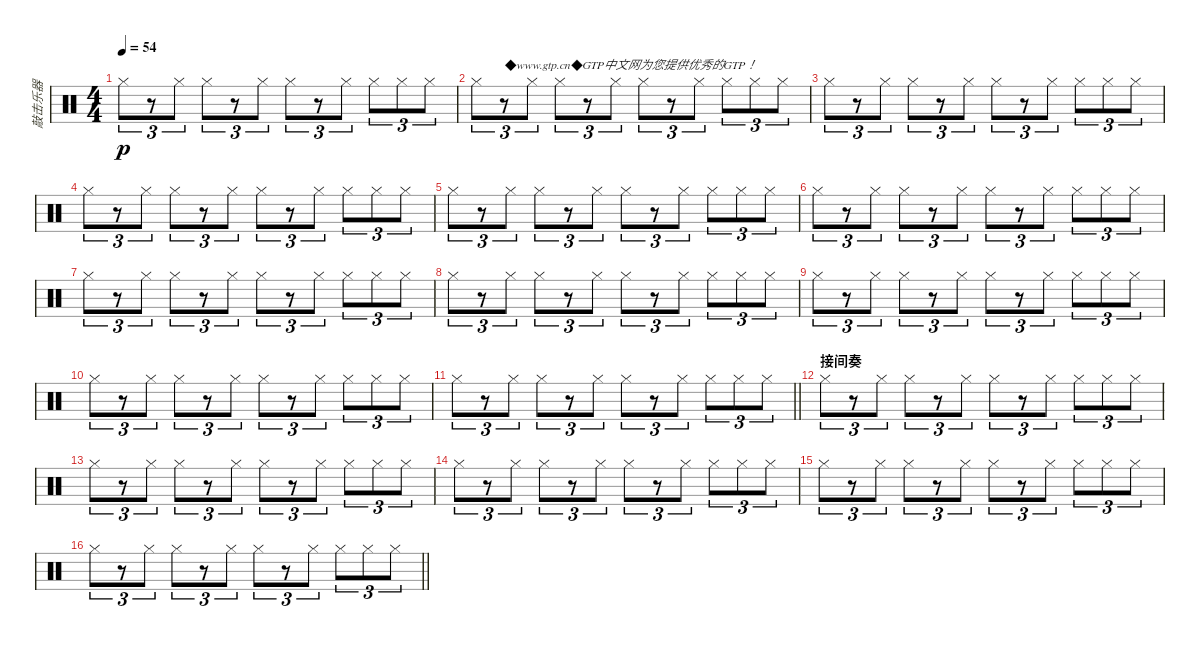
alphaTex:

\track ("敲击乐器" "敲击乐器") {instrument percussion}
\staff {score}
\articulation defaults
\ts (4 4)
\tempo 54
\clef neutral
\ks c "Hi-Hat (closed)".8{tu (3 2) dy p}
r.8{tu (3 2)} "Hi-Hat (closed)".8{tu (3 2)} "Hi-Hat (closed)".8{tu (3 2)} r.8{tu (3 2)} "Hi-Hat (closed)".8{tu (3 2)} "Hi-Hat (closed)".8{tu (3 2)} r.8{tu (3 2)} "Hi-Hat (closed)".8{tu (3 2)} "Hi-Hat (closed)".8{tu (3 2)} "Hi-Hat (closed)".8{tu (3 2)} "Hi-Hat (closed)".8{tu (3 2)} |
"Hi-Hat (closed)".8{tu (3 2)} r.8{tu (3 2) txt "◆www.gtp.cn◆GTP中文网为您提供优秀的GTP！"} "Hi-Hat (closed)".8{tu (3 2)} "Hi-Hat (closed)".8{tu (3 2)} r.8{tu (3 2)} "Hi-Hat (closed)".8{tu (3 2)} "Hi-Hat (closed)".8{tu (3 2)} r.8{tu (3 2)} "Hi-Hat (closed)".8{tu (3 2)} "Hi-Hat (closed)".8{tu (3 2)} "Hi-Hat (closed)".8{tu (3 2)} "Hi-Hat (closed)".8{tu (3 2)} |
"Hi-Hat (closed)".8{tu (3 2)} r.8{tu (3 2)} "Hi-Hat (closed)".8{tu (3 2)} "Hi-Hat (closed)".8{tu (3 2)} r.8{tu (3 2)} "Hi-Hat (closed)".8{tu (3 2)} "Hi-Hat (closed)".8{tu (3 2)} r.8{tu (3 2)} "Hi-Hat (closed)".8{tu (3 2)} "Hi-Hat (closed)".8{tu (3 2)} "Hi-Hat (closed)".8{tu (3 2)} "Hi-Hat (closed)".8{tu (3 2)} |
"Hi-Hat (closed)".8{tu (3 2)} r.8{tu (3 2)} "Hi-Hat (closed)".8{tu (3 2)} "Hi-Hat (closed)".8{tu (3 2)} r.8{tu (3 2)} "Hi-Hat (closed)".8{tu (3 2)} "Hi-Hat (closed)".8{tu (3 2)} r.8{tu (3 2)} "Hi-Hat (closed)".8{tu (3 2)} "Hi-Hat (closed)".8{tu (3 2)} "Hi-Hat (closed)".8{tu (3 2)} "Hi-Hat (closed)".8{tu (3 2)} |
"Hi-Hat (closed)".8{tu (3 2)} r.8{tu (3 2)} "Hi-Hat (closed)".8{tu (3 2)} "Hi-Hat (closed)".8{tu (3 2)} r.8{tu (3 2)} "Hi-Hat (closed)".8{tu (3 2)} "Hi-Hat (closed)".8{tu (3 2)} r.8{tu (3 2)} "Hi-Hat (closed)".8{tu (3 2)} "Hi-Hat (closed)".8{tu (3 2)} "Hi-Hat (closed)".8{tu (3 2)} "Hi-Hat (closed)".8{tu (3 2)} |
"Hi-Hat (closed)".8{tu (3 2)} r.8{tu (3 2)} "Hi-Hat (closed)".8{tu (3 2)} "Hi-Hat (closed)".8{tu (3 2)} r.8{tu (3 2)} "Hi-Hat (closed)".8{tu (3 2)} "Hi-Hat (closed)".8{tu (3 2)} r.8{tu (3 2)} "Hi-Hat (closed)".8{tu (3 2)} "Hi-Hat (closed)".8{tu (3 2)} "Hi-Hat (closed)".8{tu (3 2)} "Hi-Hat (closed)".8{tu (3 2)} |
"Hi-Hat (closed)".8{tu (3 2)} r.8{tu (3 2)} "Hi-Hat (closed)".8{tu (3 2)} "Hi-Hat (closed)".8{tu (3 2)} r.8{tu (3 2)} "Hi-Hat (closed)".8{tu (3 2)} "Hi-Hat (closed)".8{tu (3 2)} r.8{tu (3 2)} "Hi-Hat (closed)".8{tu (3 2)} "Hi-Hat (closed)".8{tu (3 2)} "Hi-Hat (closed)".8{tu (3 2)} "Hi-Hat (closed)".8{tu (3 2)} |
"Hi-Hat (closed)".8{tu (3 2)} r.8{tu (3 2)} "Hi-Hat (closed)".8{tu (3 2)} "Hi-Hat (closed)".8{tu (3 2)} r.8{tu (3 2)} "Hi-Hat (closed)".8{tu (3 2)} "Hi-Hat (closed)".8{tu (3 2)} r.8{tu (3 2)} "Hi-Hat (closed)".8{tu (3 2)} "Hi-Hat (closed)".8{tu (3 2)} "Hi-Hat (closed)".8{tu (3 2)} "Hi-Hat (closed)".8{tu (3 2)} |
"Hi-Hat (closed)".8{tu (3 2)} r.8{tu (3 2)} "Hi-Hat (closed)".8{tu (3 2)} "Hi-Hat (closed)".8{tu (3 2)} r.8{tu (3 2)} "Hi-Hat (closed)".8{tu (3 2)} "Hi-Hat (closed)".8{tu (3 2)} r.8{tu (3 2)} "Hi-Hat (closed)".8{tu (3 2)} "Hi-Hat (closed)".8{tu (3 2)} "Hi-Hat (closed)".8{tu (3 2)} "Hi-Hat (closed)".8{tu (3 2)} |
"Hi-Hat (closed)".8{tu (3 2)} r.8{tu (3 2)} "Hi-Hat (closed)".8{tu (3 2)} "Hi-Hat (closed)".8{tu (3 2)} r.8{tu (3 2)} "Hi-Hat (closed)".8{tu (3 2)} "Hi-Hat (closed)".8{tu (3 2)} r.8{tu (3 2)} "Hi-Hat (closed)".8{tu (3 2)} "Hi-Hat (closed)".8{tu (3 2)} "Hi-Hat (closed)".8{tu (3 2)} "Hi-Hat (closed)".8{tu (3 2)} |
\barLineRight lightlight "Hi-Hat (closed)".8{tu (3 2)}
r.8{tu (3 2)} "Hi-Hat (closed)".8{tu (3 2)} "Hi-Hat (closed)".8{tu (3 2)} r.8{tu (3 2)} "Hi-Hat (closed)".8{tu (3 2)} "Hi-Hat (closed)".8{tu (3 2)} r.8{tu (3 2)} "Hi-Hat (closed)".8{tu (3 2)} "Hi-Hat (closed)".8{tu (3 2)} "Hi-Hat (closed)".8{tu (3 2)} "Hi-Hat (closed)".8{tu (3 2)} |
\section ("" "接间奏")
"Hi-Hat (closed)".8{tu (3 2)} r.8{tu (3 2)} "Hi-Hat (closed)".8{tu (3 2)} "Hi-Hat (closed)".8{tu (3 2)} r.8{tu (3 2)} "Hi-Hat (closed)".8{tu (3 2)} "Hi-Hat (closed)".8{tu (3 2)} r.8{tu (3 2)} "Hi-Hat (closed)".8{tu (3 2)} "Hi-Hat (closed)".8{tu (3 2)} "Hi-Hat (closed)".8{tu (3 2)} "Hi-Hat (closed)".8{tu (3 2)} |
"Hi-Hat (closed)".8{tu (3 2)} r.8{tu (3 2)} "Hi-Hat (closed)".8{tu (3 2)} "Hi-Hat (closed)".8{tu (3 2)} r.8{tu (3 2)} "Hi-Hat (closed)".8{tu (3 2)} "Hi-Hat (closed)".8{tu (3 2)} r.8{tu (3 2)} "Hi-Hat (closed)".8{tu (3 2)} "Hi-Hat (closed)".8{tu (3 2)} "Hi-Hat (closed)".8{tu (3 2)} "Hi-Hat (closed)".8{tu (3 2)} |
"Hi-Hat (closed)".8{tu (3 2)} r.8{tu (3 2)} "Hi-Hat (closed)".8{tu (3 2)} "Hi-Hat (closed)".8{tu (3 2)} r.8{tu (3 2)} "Hi-Hat (closed)".8{tu (3 2)} "Hi-Hat (closed)".8{tu (3 2)} r.8{tu (3 2)} "Hi-Hat (closed)".8{tu (3 2)} "Hi-Hat (closed)".8{tu (3 2)} "Hi-Hat (closed)".8{tu (3 2)} "Hi-Hat (closed)".8{tu (3 2)} |
"Hi-Hat (closed)".8{tu (3 2)} r.8{tu (3 2)} "Hi-Hat (closed)".8{tu (3 2)} "Hi-Hat (closed)".8{tu (3 2)} r.8{tu (3 2)} "Hi-Hat (closed)".8{tu (3 2)} "Hi-Hat (closed)".8{tu (3 2)} r.8{tu (3 2)} "Hi-Hat (closed)".8{tu (3 2)} "Hi-Hat (closed)".8{tu (3 2)} "Hi-Hat (closed)".8{tu (3 2)} "Hi-Hat (closed)".8{tu (3 2)} |
\barLineRight lightlight "Hi-Hat (closed)".8{tu (3 2)}
r.8{tu (3 2)} "Hi-Hat (closed)".8{tu (3 2)} "Hi-Hat (closed)".8{tu (3 2)} r.8{tu (3 2)} "Hi-Hat (closed)".8{tu (3 2)} "Hi-Hat (closed)".8{tu (3 2)} r.8{tu (3 2)} "Hi-Hat (closed)".8{tu (3 2)} "Hi-Hat (closed)".8{tu (3 2)} "Hi-Hat (closed)".8{tu (3 2)} "Hi-Hat (closed)".8{tu (3 2)}
